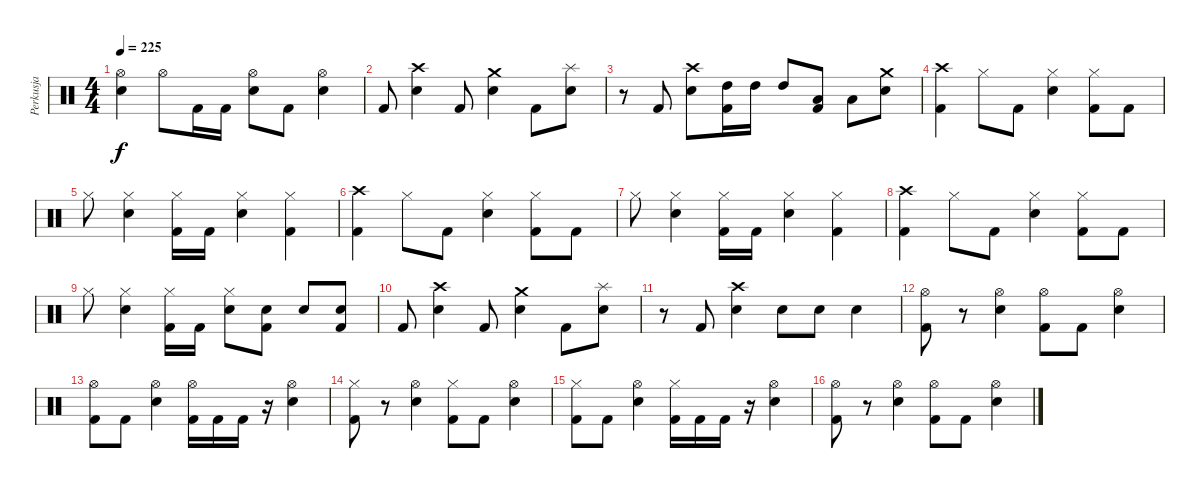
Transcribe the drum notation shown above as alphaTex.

\track ("Perkusja" "Perkusja") {instrument percussion}
\staff {score}
\articulation defaults
\ts (4 4)
\tempo 225
\clef neutral
\ks c
("Hi-Hat (open)" "Snare (hit) 2").4{dy f} "Hi-Hat (open)".8 "Kick (hit) 2".16 "Kick (hit) 2".16 ("Hi-Hat (open)" "Snare (hit) 2").8 "Kick (hit) 2".8 ("Hi-Hat (open)" "Snare (hit) 2").4 |
"Kick (hit) 2".8 ("Crash high (hit)" "Snare (hit) 2").4 "Kick (hit) 2".8 ("Crash medium (hit)" "Snare (hit) 2").4 "Kick (hit) 2".8 ("Splash (hit)" "Snare (hit) 2").8 |
r.8 "Kick (hit) 2".8 ("Crash high (hit)" "Snare (hit) 2").8 ("High Tom (hit)" "Kick (hit) 2").16 "High Tom (hit)".16 "High Tom (hit)".8 ("Low Tom (hit)" "Kick (hit) 2").8 "Low Tom (hit)".8 ("Crash medium (hit)" "Snare (hit) 2").8 |
("Crash high (hit)" "Kick (hit) 2").4 "Hi-Hat (closed)".8 "Kick (hit) 2".8 ("Hi-Hat (closed)" "Snare (hit) 2").4 ("Hi-Hat (closed)" "Kick (hit) 2").8 "Kick (hit) 2".8 |
"Hi-Hat (closed)".8 ("Hi-Hat (closed)" "Snare (hit) 2").4 ("Hi-Hat (closed)" "Kick (hit) 2").16 "Kick (hit) 2".16 ("Hi-Hat (closed)" "Snare (hit) 2").4 ("Hi-Hat (closed)" "Kick (hit) 2").4 |
("Crash high (hit)" "Kick (hit) 2").4 "Hi-Hat (closed)".8 "Kick (hit) 2".8 ("Hi-Hat (closed)" "Snare (hit) 2").4 ("Hi-Hat (closed)" "Kick (hit) 2").8 "Kick (hit) 2".8 |
"Hi-Hat (closed)".8 ("Hi-Hat (closed)" "Snare (hit) 2").4 ("Hi-Hat (closed)" "Kick (hit) 2").16 "Kick (hit) 2".16 ("Hi-Hat (closed)" "Snare (hit) 2").4 ("Hi-Hat (closed)" "Kick (hit) 2").4 |
("Crash high (hit)" "Kick (hit) 2").4 "Hi-Hat (closed)".8 "Kick (hit) 2".8 ("Hi-Hat (closed)" "Snare (hit) 2").4 ("Hi-Hat (closed)" "Kick (hit) 2").8 "Kick (hit) 2".8 |
"Hi-Hat (closed)".8 ("Hi-Hat (closed)" "Snare (hit) 2").4 ("Hi-Hat (closed)" "Kick (hit) 2").16 "Kick (hit) 2".16 ("Hi-Hat (closed)" "Snare (hit) 2").8 ("Snare (hit) 2" "Kick (hit) 2").8 "Snare (hit) 2".8 ("Snare (hit) 2" "Kick (hit) 2").8 |
"Kick (hit) 2".8 ("Crash high (hit)" "Snare (hit) 2").4 "Kick (hit) 2".8 ("Crash medium (hit)" "Snare (hit) 2").4 "Kick (hit) 2".8 ("Splash (hit)" "Snare (hit) 2").8 |
r.8 "Kick (hit) 2".8 ("Crash high (hit)" "Snare (hit) 2").4 "Snare (hit) 2".8 "Snare (hit) 2".8 "Snare (hit) 2".4 |
("Hi-Hat (open)" "Kick (hit) 2").8 r.8 ("Hi-Hat (open)" "Snare (hit) 2").4 ("Hi-Hat (open)" "Kick (hit) 2").8 "Kick (hit) 2".8 ("Hi-Hat (open)" "Snare (hit) 2").4 |
("Hi-Hat (open)" "Kick (hit) 2").8 "Kick (hit) 2".8 ("Hi-Hat (open)" "Snare (hit) 2").4 ("Hi-Hat (open)" "Kick (hit) 2").16 "Kick (hit) 2".16 "Kick (hit) 2".16 r.16 ("Hi-Hat (open)" "Snare (hit) 2").4 |
("Hi-Hat (closed)" "Kick (hit) 2").8 r.8 ("Hi-Hat (open)" "Snare (hit) 2").4 ("Hi-Hat (closed)" "Kick (hit) 2").8 "Kick (hit) 2".8 ("Hi-Hat (open)" "Snare (hit) 2").4 |
("Hi-Hat (closed)" "Kick (hit) 2").8 "Kick (hit) 2".8 ("Hi-Hat (open)" "Snare (hit) 2").4 ("Hi-Hat (closed)" "Kick (hit) 2").16 "Kick (hit) 2".16 "Kick (hit) 2".16 r.16 ("Hi-Hat (open)" "Snare (hit) 2").4 |
("Hi-Hat (open)" "Kick (hit) 2").8 r.8 ("Hi-Hat (open)" "Snare (hit) 2").4 ("Hi-Hat (open)" "Kick (hit) 2").8 "Kick (hit) 2".8 ("Hi-Hat (open)" "Snare (hit) 2").4
